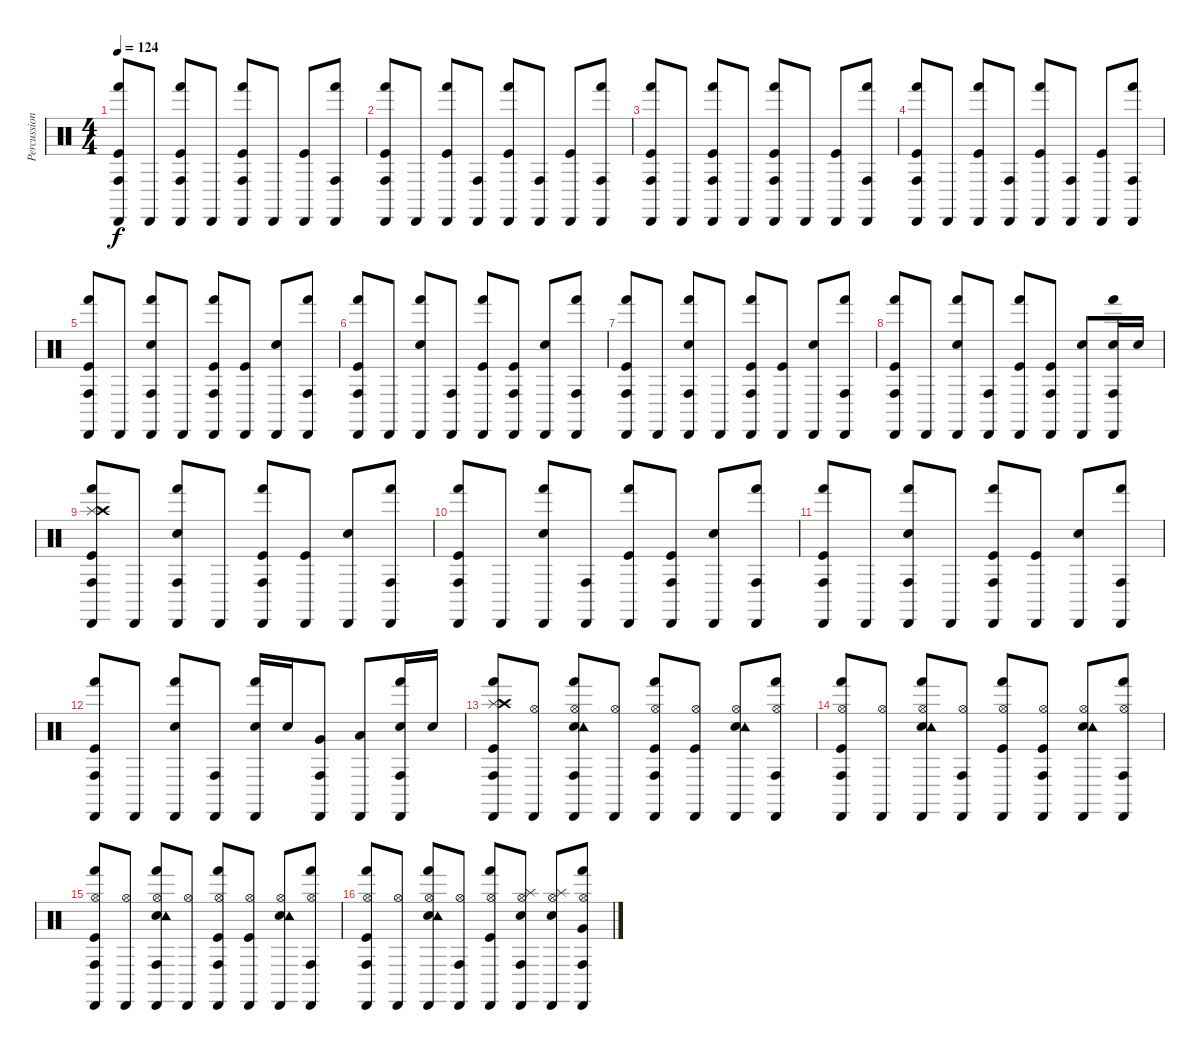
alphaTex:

\track ("Percussion" "Percussion") {instrument percussion}
\staff {score}
\articulation defaults
\ts (4 4)
\tempo 124
\clef neutral
\ks c
("Cabasa (hit)" "Kick (hit)" "Hand (hit)" "Conga high (hit)").8{dy f} "Cabasa (hit)".8 ("Cabasa (hit)" "Kick (hit)" "Hand (hit)" "Conga high (hit)").8 "Cabasa (hit)".8 ("Cabasa (hit)" "Kick (hit)" "Hand (hit)" "Conga high (hit)").8 "Cabasa (hit)".8 ("Cabasa (hit)" "Kick (hit)").8 ("Cabasa (hit)" "Hand (hit)" "Conga high (hit)").8 |
("Cabasa (hit)" "Kick (hit)" "Hand (hit)" "Conga high (hit)").8 "Cabasa (hit)".8 ("Cabasa (hit)" "Kick (hit)" "Hand (hit)").8 ("Cabasa (hit)" "Conga high (hit)").8 ("Cabasa (hit)" "Kick (hit)" "Hand (hit)").8 ("Cabasa (hit)" "Conga high (hit)").8 ("Cabasa (hit)" "Kick (hit)").8 ("Cabasa (hit)" "Hand (hit)" "Conga high (hit)").8 |
("Cabasa (hit)" "Kick (hit)" "Hand (hit)" "Conga high (hit)").8 "Cabasa (hit)".8 ("Cabasa (hit)" "Kick (hit)" "Hand (hit)" "Conga high (hit)").8 "Cabasa (hit)".8 ("Cabasa (hit)" "Kick (hit)" "Hand (hit)" "Conga high (hit)").8 "Cabasa (hit)".8 ("Cabasa (hit)" "Kick (hit)").8 ("Cabasa (hit)" "Hand (hit)" "Conga high (hit)").8 |
("Cabasa (hit)" "Kick (hit)" "Hand (hit)" "Conga high (hit)").8 "Cabasa (hit)".8 ("Cabasa (hit)" "Kick (hit)" "Hand (hit)").8 ("Cabasa (hit)" "Conga high (hit)").8 ("Cabasa (hit)" "Kick (hit)" "Hand (hit)").8 ("Cabasa (hit)" "Conga high (hit)").8 ("Cabasa (hit)" "Kick (hit)").8 ("Cabasa (hit)" "Hand (hit)" "Conga high (hit)").8 |
("Cabasa (hit)" "Kick (hit)" "Hand (hit)" "Conga high (hit)").8 "Cabasa (hit)".8 ("Cabasa (hit)" "Electric Snare (hit)" "Hand (hit)" "Conga high (hit)").8 "Cabasa (hit)".8 ("Cabasa (hit)" "Kick (hit)" "Hand (hit)" "Conga high (hit)").8 ("Cabasa (hit)" "Kick (hit)").8 ("Cabasa (hit)" "Electric Snare (hit)").8 ("Cabasa (hit)" "Hand (hit)" "Conga high (hit)").8 |
("Cabasa (hit)" "Kick (hit)" "Hand (hit)" "Conga high (hit)").8 "Cabasa (hit)".8 ("Cabasa (hit)" "Electric Snare (hit)" "Hand (hit)").8 ("Cabasa (hit)" "Conga high (hit)").8 ("Cabasa (hit)" "Kick (hit)" "Hand (hit)").8 ("Cabasa (hit)" "Kick (hit)" "Conga high (hit)").8 ("Cabasa (hit)" "Electric Snare (hit)").8 ("Cabasa (hit)" "Hand (hit)" "Conga high (hit)").8 |
("Cabasa (hit)" "Kick (hit)" "Hand (hit)" "Conga high (hit)").8 "Cabasa (hit)".8 ("Cabasa (hit)" "Electric Snare (hit)" "Hand (hit)" "Conga high (hit)").8 "Cabasa (hit)".8 ("Cabasa (hit)" "Kick (hit)" "Hand (hit)" "Conga high (hit)").8 ("Cabasa (hit)" "Kick (hit)").8 ("Cabasa (hit)" "Electric Snare (hit)").8 ("Cabasa (hit)" "Hand (hit)" "Conga high (hit)").8 |
("Cabasa (hit)" "Kick (hit)" "Hand (hit)" "Conga high (hit)").8 "Cabasa (hit)".8 ("Cabasa (hit)" "Electric Snare (hit)" "Hand (hit)").8 ("Cabasa (hit)" "Conga high (hit)").8 ("Cabasa (hit)" "Kick (hit)" "Hand (hit)").8 ("Cabasa (hit)" "Kick (hit)" "Conga high (hit)").8 ("Cabasa (hit)" "Electric Snare (hit)").8 ("Cabasa (hit)" "Snare (hit) 2" "Hand (hit)" "Conga high (hit)").16 "Snare (hit) 2".16 |
("Cabasa (hit)" "Kick (hit)" "Hand (hit)" "Conga high (hit)" "Splash (hit)" "Crash high (hit)").8 "Cabasa (hit)".8 ("Cabasa (hit)" "Electric Snare (hit)" "Hand (hit)" "Conga high (hit)").8 "Cabasa (hit)".8 ("Cabasa (hit)" "Kick (hit)" "Hand (hit)" "Conga high (hit)").8 ("Cabasa (hit)" "Kick (hit)").8 ("Cabasa (hit)" "Electric Snare (hit)").8 ("Cabasa (hit)" "Hand (hit)" "Conga high (hit)").8 |
("Cabasa (hit)" "Kick (hit)" "Hand (hit)" "Conga high (hit)").8 "Cabasa (hit)".8 ("Cabasa (hit)" "Electric Snare (hit)" "Hand (hit)").8 ("Cabasa (hit)" "Conga high (hit)").8 ("Cabasa (hit)" "Kick (hit)" "Hand (hit)").8 ("Cabasa (hit)" "Kick (hit)" "Conga high (hit)").8 ("Cabasa (hit)" "Electric Snare (hit)").8 ("Cabasa (hit)" "Hand (hit)" "Conga high (hit)").8 |
("Cabasa (hit)" "Kick (hit)" "Hand (hit)" "Conga high (hit)").8 "Cabasa (hit)".8 ("Cabasa (hit)" "Electric Snare (hit)" "Hand (hit)" "Conga high (hit)").8 "Cabasa (hit)".8 ("Cabasa (hit)" "Kick (hit)" "Hand (hit)" "Conga high (hit)").8 ("Cabasa (hit)" "Kick (hit)").8 ("Cabasa (hit)" "Electric Snare (hit)").8 ("Cabasa (hit)" "Hand (hit)" "Conga high (hit)").8 |
("Cabasa (hit)" "Kick (hit)" "Hand (hit)" "Conga high (hit)").8 "Cabasa (hit)".8 ("Cabasa (hit)" "Electric Snare (hit)" "Hand (hit)").8 ("Cabasa (hit)" "Conga high (hit)").8 ("Cabasa (hit)" "Snare (hit) 2" "Hand (hit)").16 "Snare (hit) 2".16 ("Cabasa (hit)" "Very Low Tom (hit)" "Conga high (hit)").8 ("Cabasa (hit)" "Low Tom (hit)").8 ("Cabasa (hit)" "Snare (hit) 2" "Hand (hit)" "Conga high (hit)").16 "Snare (hit) 2".16 |
("Cabasa (hit)" "Kick (hit)" "Hand (hit)" "Conga high (hit)" "Splash (hit)" "Crash high (hit)").8 ("Cabasa (hit)" "Hi-Hat (open)").8 ("Cabasa (hit)" "Electric Snare (hit)" "Hand (hit)" "Conga high (hit)" "Tambourine (hit)" "Hi-Hat (open)").8 ("Cabasa (hit)" "Hi-Hat (open)").8 ("Cabasa (hit)" "Kick (hit)" "Hand (hit)" "Conga high (hit)" "Hi-Hat (open)").8 ("Cabasa (hit)" "Kick (hit)" "Hi-Hat (open)").8 ("Cabasa (hit)" "Electric Snare (hit)" "Tambourine (hit)" "Hi-Hat (open)").8 ("Cabasa (hit)" "Hand (hit)" "Conga high (hit)" "Hi-Hat (open)").8 |
("Cabasa (hit)" "Kick (hit)" "Hand (hit)" "Conga high (hit)" "Hi-Hat (open)").8 ("Cabasa (hit)" "Hi-Hat (open)").8 ("Cabasa (hit)" "Electric Snare (hit)" "Hand (hit)" "Tambourine (hit)" "Hi-Hat (open)").8 ("Cabasa (hit)" "Conga high (hit)" "Hi-Hat (open)").8 ("Cabasa (hit)" "Kick (hit)" "Hand (hit)" "Hi-Hat (open)").8 ("Cabasa (hit)" "Kick (hit)" "Conga high (hit)" "Hi-Hat (open)").8 ("Cabasa (hit)" "Electric Snare (hit)" "Tambourine (hit)" "Hi-Hat (open)").8 ("Cabasa (hit)" "Hand (hit)" "Conga high (hit)" "Hi-Hat (open)").8 |
("Cabasa (hit)" "Kick (hit)" "Hand (hit)" "Conga high (hit)" "Hi-Hat (open)").8 ("Cabasa (hit)" "Hi-Hat (open)").8 ("Cabasa (hit)" "Electric Snare (hit)" "Hand (hit)" "Conga high (hit)" "Tambourine (hit)" "Hi-Hat (open)").8 ("Cabasa (hit)" "Hi-Hat (open)").8 ("Cabasa (hit)" "Kick (hit)" "Hand (hit)" "Conga high (hit)" "Hi-Hat (open)").8 ("Cabasa (hit)" "Kick (hit)" "Hi-Hat (open)").8 ("Cabasa (hit)" "Electric Snare (hit)" "Tambourine (hit)" "Hi-Hat (open)").8 ("Cabasa (hit)" "Hand (hit)" "Conga high (hit)" "Hi-Hat (open)").8 |
("Cabasa (hit)" "Kick (hit)" "Hand (hit)" "Conga high (hit)" "Hi-Hat (open)").8 ("Cabasa (hit)" "Hi-Hat (open)").8 ("Cabasa (hit)" "Electric Snare (hit)" "Hand (hit)" "Tambourine (hit)" "Hi-Hat (open)").8 ("Cabasa (hit)" "Conga high (hit)" "Hi-Hat (open)").8 ("Cabasa (hit)" "Kick (hit)" "Hand (hit)" "Hi-Hat (open)").8 ("Cabasa (hit)" "Electric Snare (hit)" "Conga high (hit)" "Splash (hit)" "Hi-Hat (open)").8 ("Cabasa (hit)" "Electric Snare (hit)" "Splash (hit)" "Hi-Hat (open)").8 ("Cabasa (hit)" "Very Low Tom (hit)" "Hand (hit)" "Conga high (hit)" "Hi-Hat (open)").8
